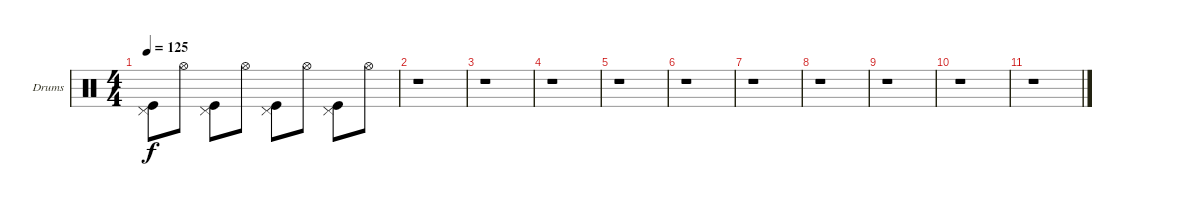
\bracketExtendMode groupsimilarinstruments
\firstSystemTrackNameOrientation horizontal
\otherSystemsTrackNameOrientation horizontal
\track ("Drumkit" "Drums") {instrument percussion}
\staff {score}
\articulation defaults
\ts (4 4)
\tempo 125
\clef neutral
\ks c
("Pedal Hi-Hat (hit)" "Kick (hit)").8{dy f} "Hi-Hat (open)".8 ("Pedal Hi-Hat (hit)" "Kick (hit)").8 "Hi-Hat (open)".8 ("Pedal Hi-Hat (hit)" "Kick (hit)").8 "Hi-Hat (open)".8 ("Pedal Hi-Hat (hit)" "Kick (hit)").8 "Hi-Hat (open)".8 |
r.1 |
r.1 |
r.1 |
r.1 |
r.1 |
r.1 |
r.1 |
r.1 |
r.1 |
r.1
